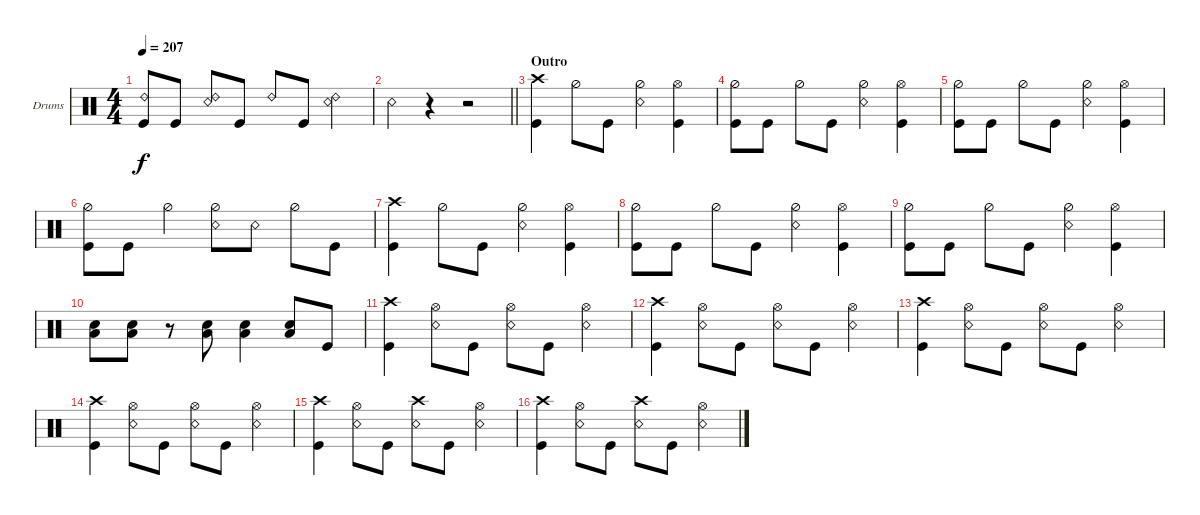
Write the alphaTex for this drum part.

\defaultSystemsLayout 4
\bracketExtendMode groupsimilarinstruments
\firstSystemTrackNameOrientation horizontal
\otherSystemsTrackNameOrientation horizontal
\track ("Drums" "Drums") {instrument percussion}
\staff {score}
\articulation defaults
\ts (4 4)
\tempo 207
\clef neutral
\ks c
("Kick (hit)" "Ride (bell) 2").8{dy f} "Kick (hit)".8 ("Snare (rim shot)" "Ride (bell) 2").8 "Kick (hit)".8 "Ride (bell) 2".8 "Kick (hit)".8 ("Snare (rim shot)" "Ride (bell) 2").4 |
\barLineRight lightlight "Snare (rim shot)".4
r.4 r.2 |
\section ("" "Outro")
("Kick (hit)" "Crash high (hit)").4 "Hi-Hat (half)".8 "Kick (hit)".8 ("Snare (rim shot)" "Hi-Hat (half)").4 ("Hi-Hat (open)" "Kick (hit)").4 |
("Kick (hit)" "Hi-Hat (half)").8 "Kick (hit)".8 "Hi-Hat (half)".8 "Kick (hit)".8 ("Snare (rim shot)" "Hi-Hat (half)").4 ("Hi-Hat (open)" "Kick (hit)").4 |
("Kick (hit)" "Hi-Hat (half)").8 "Kick (hit)".8 "Hi-Hat (half)".8 "Kick (hit)".8 ("Snare (rim shot)" "Hi-Hat (half)").4 ("Hi-Hat (open)" "Kick (hit)").4 |
("Kick (hit)" "Hi-Hat (half)").8 "Kick (hit)".8 "Hi-Hat (half)".4 ("Snare (rim shot)" "Hi-Hat (half)").8 "Snare (rim shot)".8 "Hi-Hat (half)".8 "Kick (hit)".8 |
("Kick (hit)" "Crash high (hit)").4 "Hi-Hat (half)".8 "Kick (hit)".8 ("Snare (rim shot)" "Hi-Hat (half)").4 ("Hi-Hat (open)" "Kick (hit)").4 |
("Kick (hit)" "Hi-Hat (half)").8 "Kick (hit)".8 "Hi-Hat (half)".8 "Kick (hit)".8 ("Snare (rim shot)" "Hi-Hat (half)").4 ("Hi-Hat (open)" "Kick (hit)").4 |
("Kick (hit)" "Hi-Hat (half)").8 "Kick (hit)".8 "Hi-Hat (half)".8 "Kick (hit)".8 ("Snare (rim shot)" "Hi-Hat (half)").4 ("Hi-Hat (open)" "Kick (hit)").4 |
("Snare (hit) 2" "Low Tom (hit)").8 ("Snare (hit) 2" "Low Tom (hit)").8 r.8 ("Snare (hit) 2" "Low Tom (hit)").8 ("Snare (hit) 2" "Low Tom (hit)").4 ("Snare (hit) 2" "Low Tom (hit)").8 "Kick (hit)".8 |
("Kick (hit)" "Crash high (hit)").4 ("Hi-Hat (open)" "Snare (rim shot)").8 "Kick (hit)".8 ("Hi-Hat (open)" "Snare (rim shot)").8 "Kick (hit)".8 ("Hi-Hat (open)" "Snare (rim shot)").4 |
("Kick (hit)" "Crash high (hit)").4 ("Hi-Hat (open)" "Snare (rim shot)").8 "Kick (hit)".8 ("Hi-Hat (open)" "Snare (rim shot)").8 "Kick (hit)".8 ("Hi-Hat (open)" "Snare (rim shot)").4 |
("Kick (hit)" "Crash high (hit)").4 ("Hi-Hat (open)" "Snare (rim shot)").8 "Kick (hit)".8 ("Hi-Hat (open)" "Snare (rim shot)").8 "Kick (hit)".8 ("Hi-Hat (open)" "Snare (rim shot)").4 |
("Kick (hit)" "Crash high (hit)").4 ("Hi-Hat (open)" "Snare (rim shot)").8 "Kick (hit)".8 ("Hi-Hat (open)" "Snare (rim shot)").8 "Kick (hit)".8 ("Hi-Hat (open)" "Snare (rim shot)").4 |
("Kick (hit)" "Crash high (hit)").4 ("Hi-Hat (open)" "Snare (rim shot)").8 "Kick (hit)".8 ("Snare (rim shot)" "Crash high (hit)").8 "Kick (hit)".8 ("Hi-Hat (open)" "Snare (rim shot)").4 |
("Kick (hit)" "Crash high (hit)").4 ("Hi-Hat (open)" "Snare (rim shot)").8 "Kick (hit)".8 ("Snare (rim shot)" "Crash high (hit)").8 "Kick (hit)".8 ("Hi-Hat (open)" "Snare (rim shot)").4
